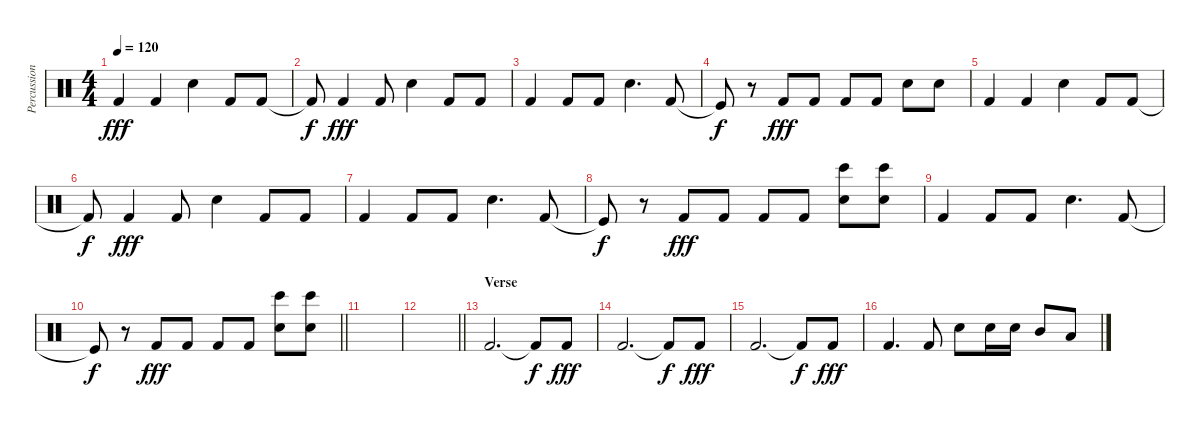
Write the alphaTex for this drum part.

\track ("Percussion 1" "Percussion") {instrument percussion}
\staff {score}
\articulation defaults
\ts (4 4)
\tempo 120
\clef neutral
\ks c "Kick (hit) 2".4{dy fff} "Kick (hit) 2".4 "Electric Snare (hit)".4 "Kick (hit) 2".8 "Kick (hit) 2".8
|
"Kick (hit) 2"{t}.8{dy f} "Kick (hit) 2".4{dy fff} "Kick (hit) 2".8 "Electric Snare (hit)".4 "Kick (hit) 2".8 "Kick (hit) 2".8 |
"Kick (hit) 2".4 "Kick (hit) 2".8 "Kick (hit) 2".8 "Electric Snare (hit)".4{d} "Kick (hit) 2".8 |
"Kick (hit)"{t}.8{dy f} r.8 "Kick (hit) 2".8{dy fff} "Kick (hit) 2".8 "Kick (hit) 2".8 "Kick (hit) 2".8 "Electric Snare (hit)".8 "Electric Snare (hit)".8 |
"Kick (hit) 2".4 "Kick (hit) 2".4 "Electric Snare (hit)".4 "Kick (hit) 2".8 "Kick (hit) 2".8 |
"Kick (hit) 2"{t}.8{dy f} "Kick (hit) 2".4{dy fff} "Kick (hit) 2".8 "Electric Snare (hit)".4 "Kick (hit) 2".8 "Kick (hit) 2".8 |
"Kick (hit) 2".4 "Kick (hit) 2".8 "Kick (hit) 2".8 "Electric Snare (hit)".4{d} "Kick (hit) 2".8 |
"Kick (hit)"{t}.8{dy f} r.8 "Kick (hit) 2".8{dy fff} "Kick (hit) 2".8 "Kick (hit) 2".8 "Kick (hit) 2".8 ("Electric Snare (hit)" "Bongo High (hit)").8 ("Electric Snare (hit)" "Bongo High (hit)").8 |
"Kick (hit) 2".4 "Kick (hit) 2".8 "Kick (hit) 2".8 "Electric Snare (hit)".4{d} "Kick (hit) 2".8 |
\barLineRight lightlight "Kick (hit)"{t}.8{dy f}
r.8 "Kick (hit) 2".8{dy fff} "Kick (hit) 2".8 "Kick (hit) 2".8 "Kick (hit) 2".8 ("Electric Snare (hit)" "Bongo High (hit)").8 ("Electric Snare (hit)" "Bongo High (hit)").8 |
\section ("" "")
|
\barLineRight lightlight
|
\section ("" "Verse")
"Kick (hit) 2".2{d} "Kick (hit) 2"{t}.8{dy f} "Kick (hit) 2".8{dy fff} |
"Kick (hit) 2".2{d} "Kick (hit) 2"{t}.8{dy f} "Kick (hit) 2".8{dy fff} |
"Kick (hit) 2".2{d} "Kick (hit) 2"{t}.8{dy f} "Kick (hit) 2".8{dy fff} |
"Kick (hit) 2".4{d} "Kick (hit) 2".8 "Electric Snare (hit)".8 "Electric Snare (hit)".16 "Electric Snare (hit)".16 "Mid Tom (hit)".8 "Low Tom (hit)".8
